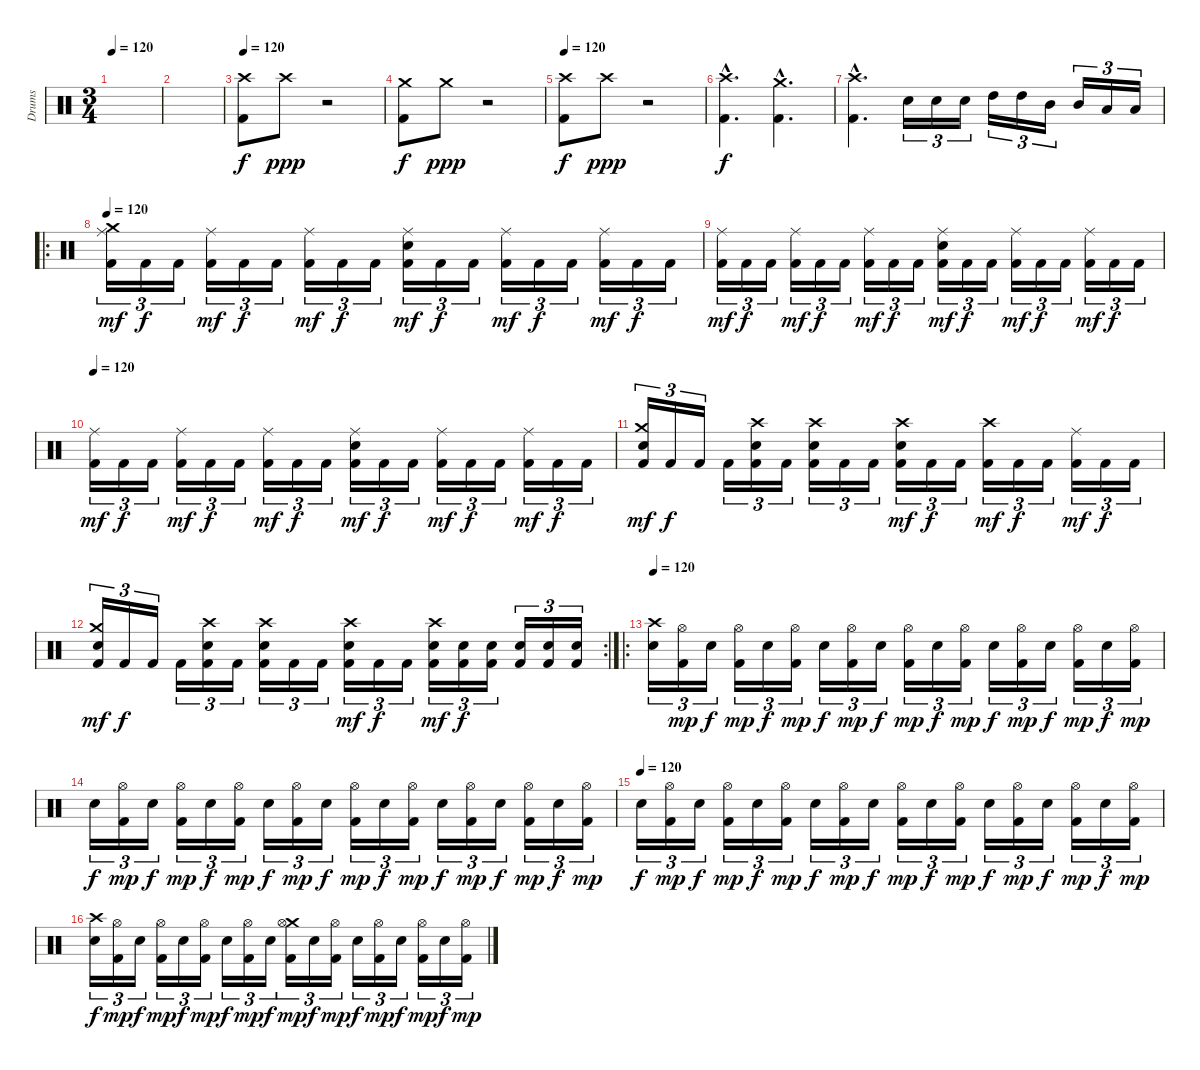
\track ("Drums" "Drums") {instrument percussion}
\staff {score}
\articulation defaults
\ts (3 4)
\tempo 120
\clef neutral
\ks c
|
|
\tempo 120
("Crash high (hit)" "Kick (hit) 2").8 "Crash high (hit)".8{dy ppp} r.2 |
("Crash medium (hit)" "Kick (hit) 2").8{dy f} "Crash medium (hit)".8{dy ppp} r.2 |
\tempo 120
("Crash high (hit)" "Kick (hit) 2").8{dy f} "Crash high (hit)".8{dy ppp} r.2 |
("Crash high (hit)"{hac} "Kick (hit) 2"{hac}).4{d dy f} ("Crash medium (hit)"{hac} "Kick (hit) 2"{hac}).4{d} |
("Crash high (hit)"{hac} "Kick (hit) 2"{hac}).4{d} "Electric Snare (hit)".16{tu (3 2)} "Electric Snare (hit)".16{tu (3 2)} "Electric Snare (hit)".16{tu (3 2)} "High Tom (hit)".16{tu (3 2)} "High Tom (hit)".16{tu (3 2)} "Mid Tom (hit)".16{tu (3 2)} "Mid Tom (hit)".16{tu (3 2)} "Low Tom (hit)".16{tu (3 2)} "Low Tom (hit)".16{tu (3 2)} |
\ro
\tempo 120
("Crash medium (hit)" "Ride (middle)" "Kick (hit) 2").16{tu (3 2) dy mf} "Kick (hit) 2".16{tu (3 2) dy f} "Kick (hit) 2".16{tu (3 2)} ("Ride (middle)" "Kick (hit) 2").16{tu (3 2) dy mf} "Kick (hit) 2".16{tu (3 2) dy f} "Kick (hit) 2".16{tu (3 2)} ("Ride (middle)" "Kick (hit) 2").16{tu (3 2) dy mf} "Kick (hit) 2".16{tu (3 2) dy f} "Kick (hit) 2".16{tu (3 2)} ("Ride (middle)" "Electric Snare (hit)" "Kick (hit) 2").16{tu (3 2) dy mf} "Kick (hit) 2".16{tu (3 2) dy f} "Kick (hit) 2".16{tu (3 2)} ("Ride (middle)" "Kick (hit) 2").16{tu (3 2) dy mf} "Kick (hit) 2".16{tu (3 2) dy f} "Kick (hit) 2".16{tu (3 2)} ("Ride (middle)" "Kick (hit) 2").16{tu (3 2) dy mf} "Kick (hit) 2".16{tu (3 2) dy f} "Kick (hit) 2".16{tu (3 2)} |
("Ride (middle)" "Kick (hit) 2").16{tu (3 2) dy mf} "Kick (hit) 2".16{tu (3 2) dy f} "Kick (hit) 2".16{tu (3 2)} ("Ride (middle)" "Kick (hit) 2").16{tu (3 2) dy mf} "Kick (hit) 2".16{tu (3 2) dy f} "Kick (hit) 2".16{tu (3 2)} ("Ride (middle)" "Kick (hit) 2").16{tu (3 2) dy mf} "Kick (hit) 2".16{tu (3 2) dy f} "Kick (hit) 2".16{tu (3 2)} ("Ride (middle)" "Electric Snare (hit)" "Kick (hit) 2").16{tu (3 2) dy mf} "Kick (hit) 2".16{tu (3 2) dy f} "Kick (hit) 2".16{tu (3 2)} ("Ride (middle)" "Kick (hit) 2").16{tu (3 2) dy mf} "Kick (hit) 2".16{tu (3 2) dy f} "Kick (hit) 2".16{tu (3 2)} ("Ride (middle)" "Kick (hit) 2").16{tu (3 2) dy mf} "Kick (hit) 2".16{tu (3 2) dy f} "Kick (hit) 2".16{tu (3 2)} |
\tempo 120
("Ride (middle)" "Kick (hit) 2").16{tu (3 2) dy mf} "Kick (hit) 2".16{tu (3 2) dy f} "Kick (hit) 2".16{tu (3 2)} ("Ride (middle)" "Kick (hit) 2").16{tu (3 2) dy mf} "Kick (hit) 2".16{tu (3 2) dy f} "Kick (hit) 2".16{tu (3 2)} ("Ride (middle)" "Kick (hit) 2").16{tu (3 2) dy mf} "Kick (hit) 2".16{tu (3 2) dy f} "Kick (hit) 2".16{tu (3 2)} ("Ride (middle)" "Electric Snare (hit)" "Kick (hit) 2").16{tu (3 2) dy mf} "Kick (hit) 2".16{tu (3 2) dy f} "Kick (hit) 2".16{tu (3 2)} ("Ride (middle)" "Kick (hit) 2").16{tu (3 2) dy mf} "Kick (hit) 2".16{tu (3 2) dy f} "Kick (hit) 2".16{tu (3 2)} ("Ride (middle)" "Kick (hit) 2").16{tu (3 2) dy mf} "Kick (hit) 2".16{tu (3 2) dy f} "Kick (hit) 2".16{tu (3 2)} |
("Crash medium (hit)" "Electric Snare (hit)" "Kick (hit) 2").16{tu (3 2) dy mf} "Kick (hit) 2".16{tu (3 2) dy f} "Kick (hit) 2".16{tu (3 2)} "Kick (hit) 2".16{tu (3 2)} ("Crash high (hit)" "Electric Snare (hit)" "Kick (hit) 2").16{tu (3 2)} "Kick (hit) 2".16{tu (3 2)} ("Crash high (hit)" "Electric Snare (hit)" "Kick (hit) 2").16{tu (3 2)} "Kick (hit) 2".16{tu (3 2)} "Kick (hit) 2".16{tu (3 2)} ("Crash high (hit)" "Electric Snare (hit)" "Kick (hit) 2").16{tu (3 2) dy mf} "Kick (hit) 2".16{tu (3 2) dy f} "Kick (hit) 2".16{tu (3 2)} ("Crash high (hit)" "Kick (hit) 2").16{tu (3 2) dy mf} "Kick (hit) 2".16{tu (3 2) dy f} "Kick (hit) 2".16{tu (3 2)} ("Ride (middle)" "Kick (hit) 2").16{tu (3 2) dy mf} "Kick (hit) 2".16{tu (3 2) dy f} "Kick (hit) 2".16{tu (3 2)} |
\rc 2
("Crash medium (hit)" "Electric Snare (hit)" "Kick (hit) 2").16{tu (3 2) dy mf} "Kick (hit) 2".16{tu (3 2) dy f} "Kick (hit) 2".16{tu (3 2)} "Kick (hit) 2".16{tu (3 2)} ("Crash high (hit)" "Electric Snare (hit)" "Kick (hit) 2").16{tu (3 2)} "Kick (hit) 2".16{tu (3 2)} ("Crash high (hit)" "Electric Snare (hit)" "Kick (hit) 2").16{tu (3 2)} "Kick (hit) 2".16{tu (3 2)} "Kick (hit) 2".16{tu (3 2)} ("Crash high (hit)" "Electric Snare (hit)" "Kick (hit) 2").16{tu (3 2) dy mf} "Kick (hit) 2".16{tu (3 2) dy f} "Kick (hit) 2".16{tu (3 2)} ("Crash high (hit)" "Electric Snare (hit)" "Kick (hit) 2").16{tu (3 2) dy mf} ("Electric Snare (hit)" "Kick (hit) 2").16{tu (3 2) dy f} ("Electric Snare (hit)" "Kick (hit) 2").16{tu (3 2)} ("Electric Snare (hit)" "Kick (hit) 2").16{tu (3 2)} ("Electric Snare (hit)" "Kick (hit) 2").16{tu (3 2)} ("Electric Snare (hit)" "Kick (hit) 2").16{tu (3 2)} |
\ro
\tempo 120
("Crash high (hit)" "Electric Snare (hit)").16{tu (3 2)} ("Hi-Hat (open)" "Kick (hit) 2").16{tu (3 2) dy mp} "Electric Snare (hit)".16{tu (3 2) dy f} ("Hi-Hat (open)" "Kick (hit) 2").16{tu (3 2) dy mp} "Electric Snare (hit)".16{tu (3 2) dy f} ("Hi-Hat (open)" "Kick (hit) 2").16{tu (3 2) dy mp} "Electric Snare (hit)".16{tu (3 2) dy f} ("Hi-Hat (open)" "Kick (hit) 2").16{tu (3 2) dy mp} "Electric Snare (hit)".16{tu (3 2) dy f} ("Hi-Hat (open)" "Kick (hit) 2").16{tu (3 2) dy mp} "Electric Snare (hit)".16{tu (3 2) dy f} ("Hi-Hat (open)" "Kick (hit) 2").16{tu (3 2) dy mp} "Electric Snare (hit)".16{tu (3 2) dy f} ("Hi-Hat (open)" "Kick (hit) 2").16{tu (3 2) dy mp} "Electric Snare (hit)".16{tu (3 2) dy f} ("Hi-Hat (open)" "Kick (hit) 2").16{tu (3 2) dy mp} "Electric Snare (hit)".16{tu (3 2) dy f} ("Hi-Hat (open)" "Kick (hit) 2").16{tu (3 2) dy mp} |
"Electric Snare (hit)".16{tu (3 2) dy f} ("Hi-Hat (open)" "Kick (hit) 2").16{tu (3 2) dy mp} "Electric Snare (hit)".16{tu (3 2) dy f} ("Hi-Hat (open)" "Kick (hit) 2").16{tu (3 2) dy mp} "Electric Snare (hit)".16{tu (3 2) dy f} ("Hi-Hat (open)" "Kick (hit) 2").16{tu (3 2) dy mp} "Electric Snare (hit)".16{tu (3 2) dy f} ("Hi-Hat (open)" "Kick (hit) 2").16{tu (3 2) dy mp} "Electric Snare (hit)".16{tu (3 2) dy f} ("Hi-Hat (open)" "Kick (hit) 2").16{tu (3 2) dy mp} "Electric Snare (hit)".16{tu (3 2) dy f} ("Hi-Hat (open)" "Kick (hit) 2").16{tu (3 2) dy mp} "Electric Snare (hit)".16{tu (3 2) dy f} ("Hi-Hat (open)" "Kick (hit) 2").16{tu (3 2) dy mp} "Electric Snare (hit)".16{tu (3 2) dy f} ("Hi-Hat (open)" "Kick (hit) 2").16{tu (3 2) dy mp} "Electric Snare (hit)".16{tu (3 2) dy f} ("Hi-Hat (open)" "Kick (hit) 2").16{tu (3 2) dy mp} |
\tempo (120)
"Electric Snare (hit)".16{tu (3 2) dy f} ("Hi-Hat (open)" "Kick (hit) 2").16{tu (3 2) dy mp} "Electric Snare (hit)".16{tu (3 2) dy f} ("Hi-Hat (open)" "Kick (hit) 2").16{tu (3 2) dy mp} "Electric Snare (hit)".16{tu (3 2) dy f} ("Hi-Hat (open)" "Kick (hit) 2").16{tu (3 2) dy mp} "Electric Snare (hit)".16{tu (3 2) dy f} ("Hi-Hat (open)" "Kick (hit) 2").16{tu (3 2) dy mp} "Electric Snare (hit)".16{tu (3 2) dy f} ("Hi-Hat (open)" "Kick (hit) 2").16{tu (3 2) dy mp} "Electric Snare (hit)".16{tu (3 2) dy f} ("Hi-Hat (open)" "Kick (hit) 2").16{tu (3 2) dy mp} "Electric Snare (hit)".16{tu (3 2) dy f} ("Hi-Hat (open)" "Kick (hit) 2").16{tu (3 2) dy mp} "Electric Snare (hit)".16{tu (3 2) dy f} ("Hi-Hat (open)" "Kick (hit) 2").16{tu (3 2) dy mp} "Electric Snare (hit)".16{tu (3 2) dy f} ("Hi-Hat (open)" "Kick (hit) 2").16{tu (3 2) dy mp} |
("Crash high (hit)" "Electric Snare (hit)").16{tu (3 2) dy f} ("Hi-Hat (open)" "Kick (hit) 2").16{tu (3 2) dy mp} "Electric Snare (hit)".16{tu (3 2) dy f} ("Hi-Hat (open)" "Kick (hit) 2").16{tu (3 2) dy mp} "Electric Snare (hit)".16{tu (3 2) dy f} ("Hi-Hat (open)" "Kick (hit) 2").16{tu (3 2) dy mp} "Electric Snare (hit)".16{tu (3 2) dy f} ("Hi-Hat (open)" "Kick (hit) 2").16{tu (3 2) dy mp} "Electric Snare (hit)".16{tu (3 2) dy f} ("Crash medium (hit)" "Hi-Hat (open)" "Kick (hit) 2").16{tu (3 2) dy mp} "Electric Snare (hit)".16{tu (3 2) dy f} ("Hi-Hat (open)" "Kick (hit) 2").16{tu (3 2) dy mp} "Electric Snare (hit)".16{tu (3 2) dy f} ("Hi-Hat (open)" "Kick (hit) 2").16{tu (3 2) dy mp} "Electric Snare (hit)".16{tu (3 2) dy f} ("Hi-Hat (open)" "Kick (hit) 2").16{tu (3 2) dy mp} "Electric Snare (hit)".16{tu (3 2) dy f} ("Hi-Hat (open)" "Kick (hit) 2").16{tu (3 2) dy mp}
